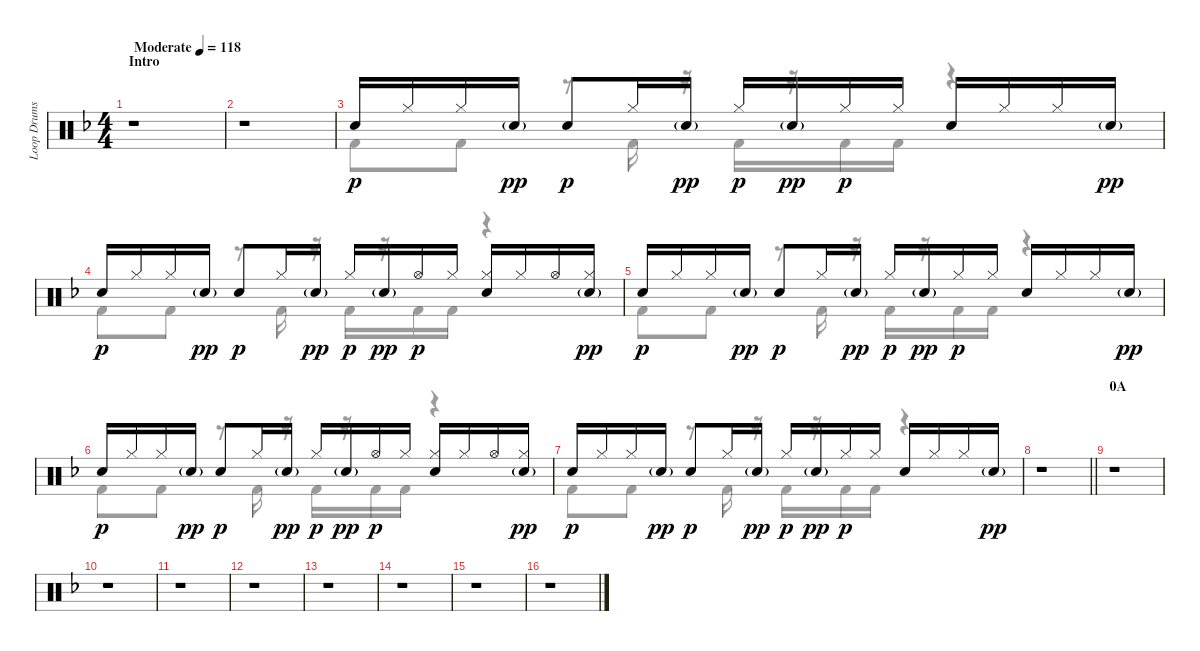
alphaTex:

\track ("Loop Drums" "Loop Drums") {instrument percussion}
\staff {score}
\articulation defaults
\voice
\ts (4 4)
\section ("" "Intro")
\tempo (118 "Moderate")
\clef neutral
\ks f
r.1{dy p} |
r.1 |
"Electric Snare (hit)".16 "Hi-Hat (closed)".16 "Hi-Hat (closed)".16 "Electric Snare (hit)"{g}.16{dy pp} "Electric Snare (hit)".8{dy p} "Hi-Hat (closed)".16 "Electric Snare (hit)"{g}.16{dy pp} "Hi-Hat (closed)".16{dy p} "Electric Snare (hit)"{g}.16{dy pp} "Hi-Hat (closed)".16{dy p} "Hi-Hat (closed)".16 "Electric Snare (hit)".16 "Hi-Hat (closed)".16 "Hi-Hat (closed)".16 "Electric Snare (hit)"{g}.16{dy pp} |
"Electric Snare (hit)".16{dy p} "Hi-Hat (closed)".16 "Hi-Hat (closed)".16 "Electric Snare (hit)"{g}.16{dy pp} "Electric Snare (hit)".8{dy p} "Hi-Hat (closed)".16 "Electric Snare (hit)"{g}.16{dy pp} "Hi-Hat (closed)".16{dy p} "Electric Snare (hit)"{g}.16{dy pp} "Hi-Hat (open)".16{dy p} "Hi-Hat (closed)".16 ("Hi-Hat (closed)" "Electric Snare (hit)").16 "Hi-Hat (closed)".16 "Hi-Hat (open)".16 ("Hi-Hat (closed)" "Electric Snare (hit)"{g}).16{dy pp} |
"Electric Snare (hit)".16{dy p} "Hi-Hat (closed)".16 "Hi-Hat (closed)".16 "Electric Snare (hit)"{g}.16{dy pp} "Electric Snare (hit)".8{dy p} "Hi-Hat (closed)".16 "Electric Snare (hit)"{g}.16{dy pp} "Hi-Hat (closed)".16{dy p} "Electric Snare (hit)"{g}.16{dy pp} "Hi-Hat (closed)".16{dy p} "Hi-Hat (closed)".16 "Electric Snare (hit)".16 "Hi-Hat (closed)".16 "Hi-Hat (closed)".16 "Electric Snare (hit)"{g}.16{dy pp} |
"Electric Snare (hit)".16{dy p} "Hi-Hat (closed)".16 "Hi-Hat (closed)".16 "Electric Snare (hit)"{g}.16{dy pp} "Electric Snare (hit)".8{dy p} "Hi-Hat (closed)".16 "Electric Snare (hit)"{g}.16{dy pp} "Hi-Hat (closed)".16{dy p} "Electric Snare (hit)"{g}.16{dy pp} "Hi-Hat (open)".16{dy p} "Hi-Hat (closed)".16 ("Hi-Hat (closed)" "Electric Snare (hit)").16 "Hi-Hat (closed)".16 "Hi-Hat (open)".16 ("Hi-Hat (closed)" "Electric Snare (hit)"{g}).16{dy pp} |
"Electric Snare (hit)".16{dy p} "Hi-Hat (closed)".16 "Hi-Hat (closed)".16 "Electric Snare (hit)"{g}.16{dy pp} "Electric Snare (hit)".8{dy p} "Hi-Hat (closed)".16 "Electric Snare (hit)"{g}.16{dy pp} "Hi-Hat (closed)".16{dy p} "Electric Snare (hit)"{g}.16{dy pp} "Hi-Hat (closed)".16{dy p} "Hi-Hat (closed)".16 "Electric Snare (hit)".16 "Hi-Hat (closed)".16 "Hi-Hat (closed)".16 "Electric Snare (hit)"{g}.16{dy pp} |
\barLineRight lightlight
r.1 |
\section ("" "0A")
r.1 |
r.1 |
r.1 |
r.1 |
r.1 |
r.1 |
r.1 |
r.1
\voice
\clef neutral
\ottava regular
\simile none
\ks f
r.1{dy p} |
r.1 |
"Kick (hit) 2".8 "Kick (hit) 2".8 r.8 "Kick (hit) 2".16 r.16 "Kick (hit) 2".16 r.16 "Kick (hit) 2".16 "Kick (hit) 2".16 r.4 |
"Kick (hit) 2".8 "Kick (hit) 2".8 r.8 "Kick (hit) 2".16 r.16 "Kick (hit) 2".16 r.16 "Kick (hit) 2".16 "Kick (hit) 2".16 r.4 |
"Kick (hit) 2".8 "Kick (hit) 2".8 r.8 "Kick (hit) 2".16 r.16 "Kick (hit) 2".16 r.16 "Kick (hit) 2".16 "Kick (hit) 2".16 r.4 |
"Kick (hit) 2".8 "Kick (hit) 2".8 r.8 "Kick (hit) 2".16 r.16 "Kick (hit) 2".16 r.16 "Kick (hit) 2".16 "Kick (hit) 2".16 r.4 |
"Kick (hit) 2".8 "Kick (hit) 2".8 r.8 "Kick (hit) 2".16 r.16 "Kick (hit) 2".16 r.16 "Kick (hit) 2".16 "Kick (hit) 2".16 r.4 |
\barLineRight lightlight
r.1 |
r.1 |
r.1 |
r.1 |
r.1 |
r.1 |
r.1 |
r.1 |
r.1
